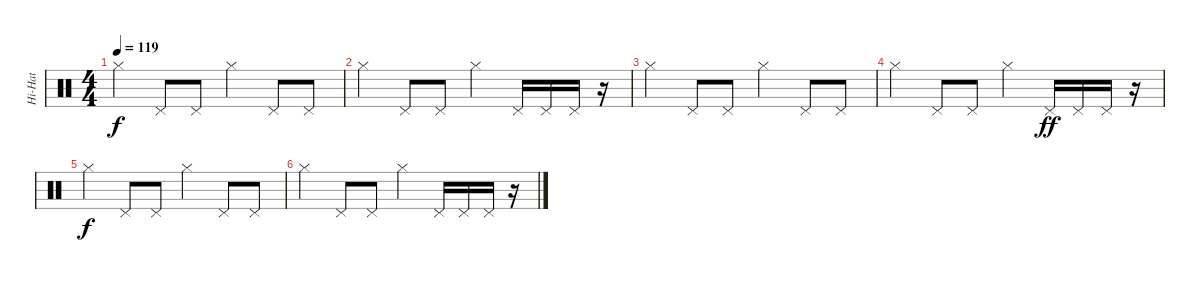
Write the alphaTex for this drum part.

\track ("Hi-Hat" "Hi-Hat") {instrument percussion}
\staff {score}
\articulation defaults
\ts (4 4)
\tempo 119
\clef neutral
\ks c "Hi-Hat (closed)".4{dy f} "Pedal Hi-Hat (hit)".8 "Pedal Hi-Hat (hit)".8 "Hi-Hat (closed)".4 "Pedal Hi-Hat (hit)".8 "Pedal Hi-Hat (hit)".8
|
"Hi-Hat (closed)".4 "Pedal Hi-Hat (hit)".8 "Pedal Hi-Hat (hit)".8 "Hi-Hat (closed)".4 "Pedal Hi-Hat (hit)".16 "Pedal Hi-Hat (hit)".16 "Pedal Hi-Hat (hit)".16 r.16 |
"Hi-Hat (closed)".4 "Pedal Hi-Hat (hit)".8 "Pedal Hi-Hat (hit)".8 "Hi-Hat (closed)".4 "Pedal Hi-Hat (hit)".8 "Pedal Hi-Hat (hit)".8 |
"Hi-Hat (closed)".4 "Pedal Hi-Hat (hit)".8 "Pedal Hi-Hat (hit)".8 "Hi-Hat (closed)".4 "Pedal Hi-Hat (hit)".16{dy ff} "Pedal Hi-Hat (hit)".16 "Pedal Hi-Hat (hit)".16 r.16 |
"Hi-Hat (closed)".4{dy f} "Pedal Hi-Hat (hit)".8 "Pedal Hi-Hat (hit)".8 "Hi-Hat (closed)".4 "Pedal Hi-Hat (hit)".8 "Pedal Hi-Hat (hit)".8 |
"Hi-Hat (closed)".4 "Pedal Hi-Hat (hit)".8 "Pedal Hi-Hat (hit)".8 "Hi-Hat (closed)".4 "Pedal Hi-Hat (hit)".16 "Pedal Hi-Hat (hit)".16 "Pedal Hi-Hat (hit)".16 r.16
